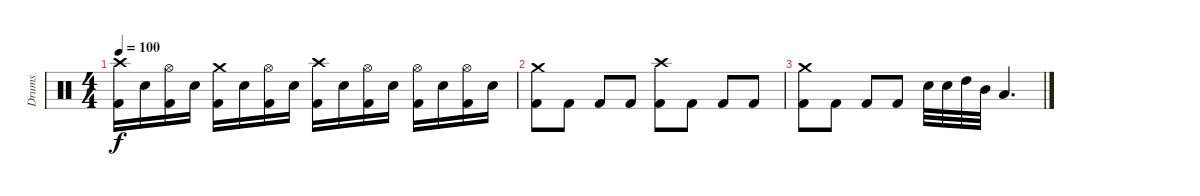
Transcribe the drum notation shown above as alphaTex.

\track ("Drums" "Drums") {instrument percussion}
\staff {score}
\articulation defaults
\ts (4 4)
\tempo 100
\clef neutral
\ks c
("Crash high (hit)" "Kick (hit) 2").16{dy f} "Snare (hit) 2".16 ("Hi-Hat (open)" "Kick (hit) 2").16 "Snare (hit) 2".16 ("Crash medium (hit)" "Kick (hit) 2").16 "Snare (hit) 2".16 ("Hi-Hat (open)" "Kick (hit) 2").16 "Snare (hit) 2".16 ("Crash high (hit)" "Kick (hit) 2").16 "Snare (hit) 2".16 ("Hi-Hat (open)" "Kick (hit) 2").16 "Snare (hit) 2".16 ("Hi-Hat (open)" "Kick (hit) 2").16 "Snare (hit) 2".16 ("Hi-Hat (open)" "Kick (hit) 2").16 "Snare (hit) 2".16 |
("Crash medium (hit)" "Kick (hit) 2").8 "Kick (hit) 2".8 "Kick (hit) 2".8 "Kick (hit) 2".8 ("Crash high (hit)" "Kick (hit) 2").8 "Kick (hit) 2".8 "Kick (hit) 2".8 "Kick (hit) 2".8 |
("Crash medium (hit)" "Kick (hit) 2").8{volume 2} "Kick (hit) 2".8 "Kick (hit) 2".8 "Kick (hit) 2".8 "Snare (hit) 2".32 "Snare (hit) 2".32 "High Tom (hit)".32 "Mid Tom (hit)".32 "Low Tom (hit)".4{d}
